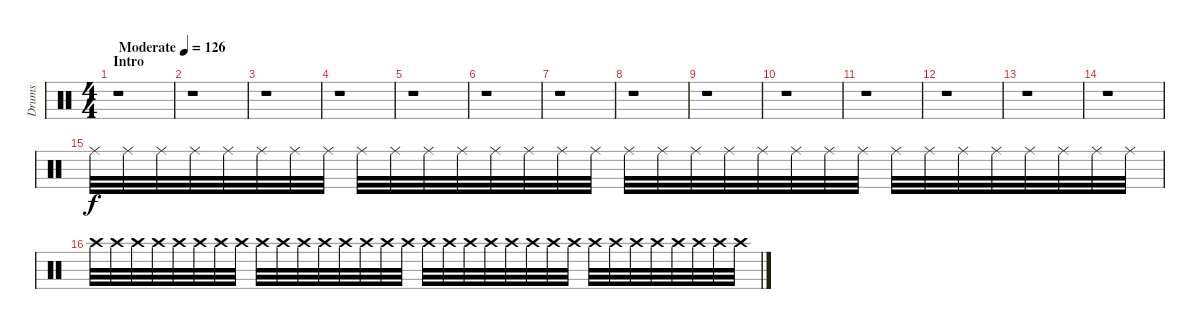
\track ("Drums" "Drums") {instrument percussion}
\staff {score}
\articulation defaults
\ts (4 4)
\section ("" "Intro")
\tempo (126 "Moderate")
\clef neutral
\ks c
r.1{dy f} |
r.1 |
r.1 |
r.1 |
r.1 |
r.1 |
r.1 |
r.1 |
r.1 |
r.1 |
r.1 |
r.1 |
r.1 |
r.1{volume 0} |
"Ride (middle)".32{volume 16} "Ride (middle)".32 "Ride (middle)".32 "Ride (middle)".32 "Ride (middle)".32 "Ride (middle)".32 "Ride (middle)".32 "Ride (middle)".32 "Ride (middle)".32 "Ride (middle)".32 "Ride (middle)".32 "Ride (middle)".32 "Ride (middle)".32 "Ride (middle)".32 "Ride (middle)".32 "Ride (middle)".32 "Ride (middle)".32 "Ride (middle)".32 "Ride (middle)".32 "Ride (middle)".32 "Ride (middle)".32 "Ride (middle)".32 "Ride (middle)".32 "Ride (middle)".32 "Ride (middle)".32 "Ride (middle)".32 "Ride (middle)".32 "Ride (middle)".32 "Ride (middle)".32 "Ride (middle)".32 "Ride (middle)".32 "Ride (middle)".32 |
"Crash high (hit)".32 "Crash high (hit)".32 "Crash high (hit)".32 "Crash high (hit)".32 "Crash high (hit)".32 "Crash high (hit)".32 "Crash high (hit)".32 "Crash high (hit)".32 "Crash high (hit)".32 "Crash high (hit)".32 "Crash high (hit)".32 "Crash high (hit)".32 "Crash high (hit)".32 "Crash high (hit)".32 "Crash high (hit)".32 "Crash high (hit)".32 "Crash high (hit)".32 "Crash high (hit)".32 "Crash high (hit)".32 "Crash high (hit)".32 "Crash high (hit)".32 "Crash high (hit)".32 "Crash high (hit)".32 "Crash high (hit)".32 "Crash high (hit)".32 "Crash high (hit)".32 "Crash high (hit)".32 "Crash high (hit)".32 "Crash high (hit)".32 "Crash high (hit)".32 "Crash high (hit)".32 "Crash high (hit)".32
